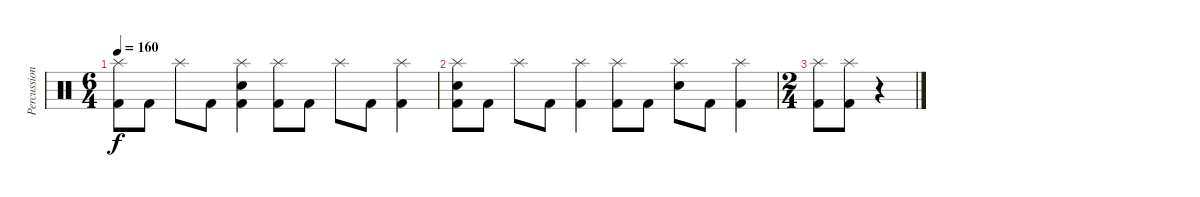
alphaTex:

\track ("Percussion" "Percussion") {instrument percussion}
\staff {score}
\articulation defaults
\ts (6 4)
\tempo 160
\clef neutral
\ks c
("Splash (hit)" "Kick (hit) 2").8{dy f} "Kick (hit) 2".8 "Splash (hit)".8 "Kick (hit) 2".8 ("Splash (hit)" "Electric Snare (hit)" "Kick (hit) 2").4 ("Splash (hit)" "Kick (hit) 2").8 "Kick (hit) 2".8 "Splash (hit)".8 "Kick (hit) 2".8 ("Splash (hit)" "Kick (hit) 2").4 |
("Splash (hit)" "Electric Snare (hit)" "Kick (hit) 2").8 "Kick (hit) 2".8 "Splash (hit)".8 "Kick (hit) 2".8 ("Splash (hit)" "Kick (hit) 2").4 ("Splash (hit)" "Kick (hit) 2").8 "Kick (hit) 2".8 ("Splash (hit)" "Electric Snare (hit)").8 "Kick (hit) 2".8 ("Splash (hit)" "Kick (hit) 2").4 |
\ts (2 4)
("Splash (hit)" "Kick (hit) 2").8 ("Splash (hit)" "Kick (hit) 2").8 r.4
